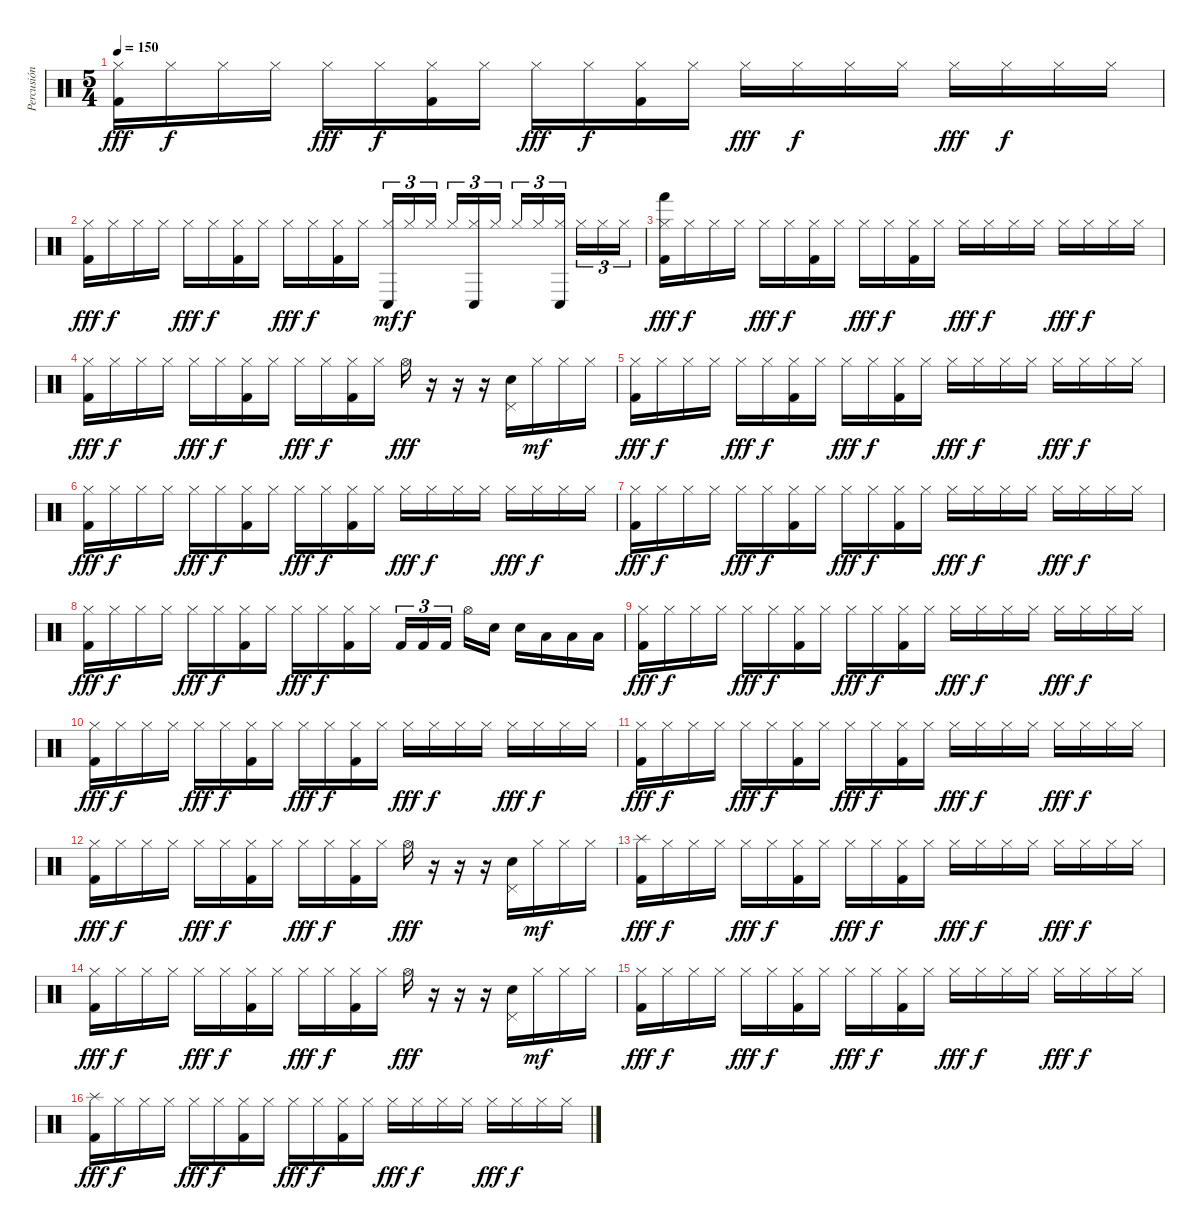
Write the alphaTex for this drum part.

\track ("Percusión" "Percusión") {instrument percussion}
\staff {score}
\articulation defaults
\ts (5 4)
\tempo 150
\clef neutral
\ks c
("Hi-Hat (closed)" "Kick (hit) 2").16{dy fff} "Hi-Hat (closed)".16{dy f} "Hi-Hat (closed)".16 "Hi-Hat (closed)".16 "Hi-Hat (closed)".16{dy fff} "Hi-Hat (closed)".16{dy f} ("Hi-Hat (closed)" "Kick (hit) 2").16 "Hi-Hat (closed)".16 "Hi-Hat (closed)".16{dy fff} "Hi-Hat (closed)".16{dy f} ("Hi-Hat (closed)" "Kick (hit) 2").16 "Hi-Hat (closed)".16 "Hi-Hat (closed)".16{dy fff} "Hi-Hat (closed)".16{dy f} "Hi-Hat (closed)".16 "Hi-Hat (closed)".16 "Hi-Hat (closed)".16{dy fff} "Hi-Hat (closed)".16{dy f} "Hi-Hat (closed)".16 "Hi-Hat (closed)".16 |
("Hi-Hat (closed)" "Kick (hit) 2").16{dy fff} "Hi-Hat (closed)".16{dy f} "Hi-Hat (closed)".16 "Hi-Hat (closed)".16 "Hi-Hat (closed)".16{dy fff} "Hi-Hat (closed)".16{dy f} ("Hi-Hat (closed)" "Kick (hit) 2").16 "Hi-Hat (closed)".16 "Hi-Hat (closed)".16{dy fff} "Hi-Hat (closed)".16{dy f} ("Hi-Hat (closed)" "Kick (hit) 2").16 "Hi-Hat (closed)".16 ("Hi-Hat (closed)" "Conga low (hit)").16{tu (3 2) dy mf} "Hi-Hat (closed)".16{tu (3 2) dy f} "Hi-Hat (closed)".16{tu (3 2) beam splitsecondary} "Hi-Hat (closed)".16{tu (3 2)} ("Hi-Hat (closed)" "Conga low (hit)").16{tu (3 2)} "Hi-Hat (closed)".16{tu (3 2)} "Hi-Hat (closed)".16{tu (3 2)} "Hi-Hat (closed)".16{tu (3 2)} ("Hi-Hat (closed)" "Conga low (hit)").16{tu (3 2) beam splitsecondary} "Hi-Hat (closed)".16{tu (3 2)} "Hi-Hat (closed)".16{tu (3 2)} "Hi-Hat (closed)".16{tu (3 2)} |
("Hi-Hat (closed)" "Hand (hit)" "Kick (hit) 2").16{dy fff} "Hi-Hat (closed)".16{dy f} "Hi-Hat (closed)".16 "Hi-Hat (closed)".16 "Hi-Hat (closed)".16{dy fff} "Hi-Hat (closed)".16{dy f} ("Hi-Hat (closed)" "Kick (hit) 2").16 "Hi-Hat (closed)".16 "Hi-Hat (closed)".16{dy fff} "Hi-Hat (closed)".16{dy f} ("Hi-Hat (closed)" "Kick (hit) 2").16 "Hi-Hat (closed)".16 "Hi-Hat (closed)".16{dy fff} "Hi-Hat (closed)".16{dy f} "Hi-Hat (closed)".16 "Hi-Hat (closed)".16 "Hi-Hat (closed)".16{dy fff} "Hi-Hat (closed)".16{dy f} "Hi-Hat (closed)".16 "Hi-Hat (closed)".16 |
("Hi-Hat (closed)" "Kick (hit) 2").16{dy fff} "Hi-Hat (closed)".16{dy f} "Hi-Hat (closed)".16 "Hi-Hat (closed)".16 "Hi-Hat (closed)".16{dy fff} "Hi-Hat (closed)".16{dy f} ("Hi-Hat (closed)" "Kick (hit) 2").16 "Hi-Hat (closed)".16 "Hi-Hat (closed)".16{dy fff} "Hi-Hat (closed)".16{dy f} ("Hi-Hat (closed)" "Kick (hit) 2").16 "Hi-Hat (closed)".16 "Hi-Hat (open)".16{dy fff} r.16 r.16 r.16 ("Pedal Hi-Hat (hit)" "Electric Snare (hit)").16 "Hi-Hat (closed)".16{dy mf} "Hi-Hat (closed)".16 "Hi-Hat (closed)".16 |
("Hi-Hat (closed)" "Kick (hit) 2").16{dy fff} "Hi-Hat (closed)".16{dy f} "Hi-Hat (closed)".16 "Hi-Hat (closed)".16 "Hi-Hat (closed)".16{dy fff} "Hi-Hat (closed)".16{dy f} ("Hi-Hat (closed)" "Kick (hit) 2").16 "Hi-Hat (closed)".16 "Hi-Hat (closed)".16{dy fff} "Hi-Hat (closed)".16{dy f} ("Hi-Hat (closed)" "Kick (hit) 2").16 "Hi-Hat (closed)".16 "Hi-Hat (closed)".16{dy fff} "Hi-Hat (closed)".16{dy f} "Hi-Hat (closed)".16 "Hi-Hat (closed)".16 "Hi-Hat (closed)".16{dy fff} "Hi-Hat (closed)".16{dy f} "Hi-Hat (closed)".16 "Hi-Hat (closed)".16 |
("Hi-Hat (closed)" "Kick (hit) 2").16{dy fff} "Hi-Hat (closed)".16{dy f} "Hi-Hat (closed)".16 "Hi-Hat (closed)".16 "Hi-Hat (closed)".16{dy fff} "Hi-Hat (closed)".16{dy f} ("Hi-Hat (closed)" "Kick (hit) 2").16 "Hi-Hat (closed)".16 "Hi-Hat (closed)".16{dy fff} "Hi-Hat (closed)".16{dy f} ("Hi-Hat (closed)" "Kick (hit) 2").16 "Hi-Hat (closed)".16 "Hi-Hat (closed)".16{dy fff} "Hi-Hat (closed)".16{dy f} "Hi-Hat (closed)".16 "Hi-Hat (closed)".16 "Hi-Hat (closed)".16{dy fff} "Hi-Hat (closed)".16{dy f} "Hi-Hat (closed)".16 "Hi-Hat (closed)".16 |
("Hi-Hat (closed)" "Kick (hit) 2").16{dy fff} "Hi-Hat (closed)".16{dy f} "Hi-Hat (closed)".16 "Hi-Hat (closed)".16 "Hi-Hat (closed)".16{dy fff} "Hi-Hat (closed)".16{dy f} ("Hi-Hat (closed)" "Kick (hit) 2").16 "Hi-Hat (closed)".16 "Hi-Hat (closed)".16{dy fff} "Hi-Hat (closed)".16{dy f} ("Hi-Hat (closed)" "Kick (hit) 2").16 "Hi-Hat (closed)".16 "Hi-Hat (closed)".16{dy fff} "Hi-Hat (closed)".16{dy f} "Hi-Hat (closed)".16 "Hi-Hat (closed)".16 "Hi-Hat (closed)".16{dy fff} "Hi-Hat (closed)".16{dy f} "Hi-Hat (closed)".16 "Hi-Hat (closed)".16 |
("Hi-Hat (closed)" "Kick (hit) 2").16{dy fff} "Hi-Hat (closed)".16{dy f} "Hi-Hat (closed)".16 "Hi-Hat (closed)".16 "Hi-Hat (closed)".16{dy fff} "Hi-Hat (closed)".16{dy f} ("Hi-Hat (closed)" "Kick (hit) 2").16 "Hi-Hat (closed)".16 "Hi-Hat (closed)".16{dy fff} "Hi-Hat (closed)".16{dy f} ("Hi-Hat (closed)" "Kick (hit) 2").16 "Hi-Hat (closed)".16 "Kick (hit) 2".16{tu (3 2)} "Kick (hit) 2".16{tu (3 2)} "Kick (hit) 2".16{tu (3 2) beam splitsecondary} "Hi-Hat (open)".16 "Electric Snare (hit)".16 "Electric Snare (hit)".16 "Low Tom (hit)".16 "Low Tom (hit)".16 "Low Tom (hit)".16 |
("Hi-Hat (closed)" "Kick (hit) 2").16{dy fff} "Hi-Hat (closed)".16{dy f} "Hi-Hat (closed)".16 "Hi-Hat (closed)".16 "Hi-Hat (closed)".16{dy fff} "Hi-Hat (closed)".16{dy f} ("Hi-Hat (closed)" "Kick (hit) 2").16 "Hi-Hat (closed)".16 "Hi-Hat (closed)".16{dy fff} "Hi-Hat (closed)".16{dy f} ("Hi-Hat (closed)" "Kick (hit) 2").16 "Hi-Hat (closed)".16 "Hi-Hat (closed)".16{dy fff} "Hi-Hat (closed)".16{dy f} "Hi-Hat (closed)".16 "Hi-Hat (closed)".16 "Hi-Hat (closed)".16{dy fff} "Hi-Hat (closed)".16{dy f} "Hi-Hat (closed)".16 "Hi-Hat (closed)".16 |
("Hi-Hat (closed)" "Kick (hit) 2").16{dy fff} "Hi-Hat (closed)".16{dy f} "Hi-Hat (closed)".16 "Hi-Hat (closed)".16 "Hi-Hat (closed)".16{dy fff} "Hi-Hat (closed)".16{dy f} ("Hi-Hat (closed)" "Kick (hit) 2").16 "Hi-Hat (closed)".16 "Hi-Hat (closed)".16{dy fff} "Hi-Hat (closed)".16{dy f} ("Hi-Hat (closed)" "Kick (hit) 2").16 "Hi-Hat (closed)".16 "Hi-Hat (closed)".16{dy fff} "Hi-Hat (closed)".16{dy f} "Hi-Hat (closed)".16 "Hi-Hat (closed)".16 "Hi-Hat (closed)".16{dy fff} "Hi-Hat (closed)".16{dy f} "Hi-Hat (closed)".16 "Hi-Hat (closed)".16 |
("Hi-Hat (closed)" "Kick (hit) 2").16{dy fff} "Hi-Hat (closed)".16{dy f} "Hi-Hat (closed)".16 "Hi-Hat (closed)".16 "Hi-Hat (closed)".16{dy fff} "Hi-Hat (closed)".16{dy f} ("Hi-Hat (closed)" "Kick (hit) 2").16 "Hi-Hat (closed)".16 "Hi-Hat (closed)".16{dy fff} "Hi-Hat (closed)".16{dy f} ("Hi-Hat (closed)" "Kick (hit) 2").16 "Hi-Hat (closed)".16 "Hi-Hat (closed)".16{dy fff} "Hi-Hat (closed)".16{dy f} "Hi-Hat (closed)".16 "Hi-Hat (closed)".16 "Hi-Hat (closed)".16{dy fff} "Hi-Hat (closed)".16{dy f} "Hi-Hat (closed)".16 "Hi-Hat (closed)".16 |
("Hi-Hat (closed)" "Kick (hit) 2").16{dy fff} "Hi-Hat (closed)".16{dy f} "Hi-Hat (closed)".16 "Hi-Hat (closed)".16 "Hi-Hat (closed)".16{dy fff} "Hi-Hat (closed)".16{dy f} ("Hi-Hat (closed)" "Kick (hit) 2").16 "Hi-Hat (closed)".16 "Hi-Hat (closed)".16{dy fff} "Hi-Hat (closed)".16{dy f} ("Hi-Hat (closed)" "Kick (hit) 2").16 "Hi-Hat (closed)".16 "Hi-Hat (open)".16{dy fff} r.16 r.16 r.16 ("Pedal Hi-Hat (hit)" "Electric Snare (hit)").16 "Hi-Hat (closed)".16{dy mf} "Hi-Hat (closed)".16 "Hi-Hat (closed)".16 |
("Splash (hit)" "Kick (hit) 2").16{dy fff} "Hi-Hat (closed)".16{dy f} "Hi-Hat (closed)".16 "Hi-Hat (closed)".16 "Hi-Hat (closed)".16{dy fff} "Hi-Hat (closed)".16{dy f} ("Hi-Hat (closed)" "Kick (hit) 2").16 "Hi-Hat (closed)".16 "Hi-Hat (closed)".16{dy fff} "Hi-Hat (closed)".16{dy f} ("Hi-Hat (closed)" "Kick (hit) 2").16 "Hi-Hat (closed)".16 "Hi-Hat (closed)".16{dy fff} "Hi-Hat (closed)".16{dy f} "Hi-Hat (closed)".16 "Hi-Hat (closed)".16 "Hi-Hat (closed)".16{dy fff} "Hi-Hat (closed)".16{dy f} "Hi-Hat (closed)".16 "Hi-Hat (closed)".16 |
("Hi-Hat (closed)" "Kick (hit) 2").16{dy fff} "Hi-Hat (closed)".16{dy f} "Hi-Hat (closed)".16 "Hi-Hat (closed)".16 "Hi-Hat (closed)".16{dy fff} "Hi-Hat (closed)".16{dy f} ("Hi-Hat (closed)" "Kick (hit) 2").16 "Hi-Hat (closed)".16 "Hi-Hat (closed)".16{dy fff} "Hi-Hat (closed)".16{dy f} ("Hi-Hat (closed)" "Kick (hit) 2").16 "Hi-Hat (closed)".16 "Hi-Hat (open)".16{dy fff} r.16 r.16 r.16 ("Pedal Hi-Hat (hit)" "Electric Snare (hit)").16 "Hi-Hat (closed)".16{dy mf} "Hi-Hat (closed)".16 "Hi-Hat (closed)".16 |
("Hi-Hat (closed)" "Kick (hit) 2").16{dy fff} "Hi-Hat (closed)".16{dy f} "Hi-Hat (closed)".16 "Hi-Hat (closed)".16 "Hi-Hat (closed)".16{dy fff} "Hi-Hat (closed)".16{dy f} ("Hi-Hat (closed)" "Kick (hit) 2").16 "Hi-Hat (closed)".16 "Hi-Hat (closed)".16{dy fff} "Hi-Hat (closed)".16{dy f} ("Hi-Hat (closed)" "Kick (hit) 2").16 "Hi-Hat (closed)".16 "Hi-Hat (closed)".16{dy fff} "Hi-Hat (closed)".16{dy f} "Hi-Hat (closed)".16 "Hi-Hat (closed)".16 "Hi-Hat (closed)".16{dy fff} "Hi-Hat (closed)".16{dy f} "Hi-Hat (closed)".16 "Hi-Hat (closed)".16 |
("Splash (hit)" "Kick (hit) 2").16{dy fff} "Hi-Hat (closed)".16{dy f} "Hi-Hat (closed)".16 "Hi-Hat (closed)".16 "Hi-Hat (closed)".16{dy fff} "Hi-Hat (closed)".16{dy f} ("Hi-Hat (closed)" "Kick (hit) 2").16 "Hi-Hat (closed)".16 "Hi-Hat (closed)".16{dy fff} "Hi-Hat (closed)".16{dy f} ("Hi-Hat (closed)" "Kick (hit) 2").16 "Hi-Hat (closed)".16 "Hi-Hat (closed)".16{dy fff} "Hi-Hat (closed)".16{dy f} "Hi-Hat (closed)".16 "Hi-Hat (closed)".16 "Hi-Hat (closed)".16{dy fff} "Hi-Hat (closed)".16{dy f} "Hi-Hat (closed)".16 "Hi-Hat (closed)".16
